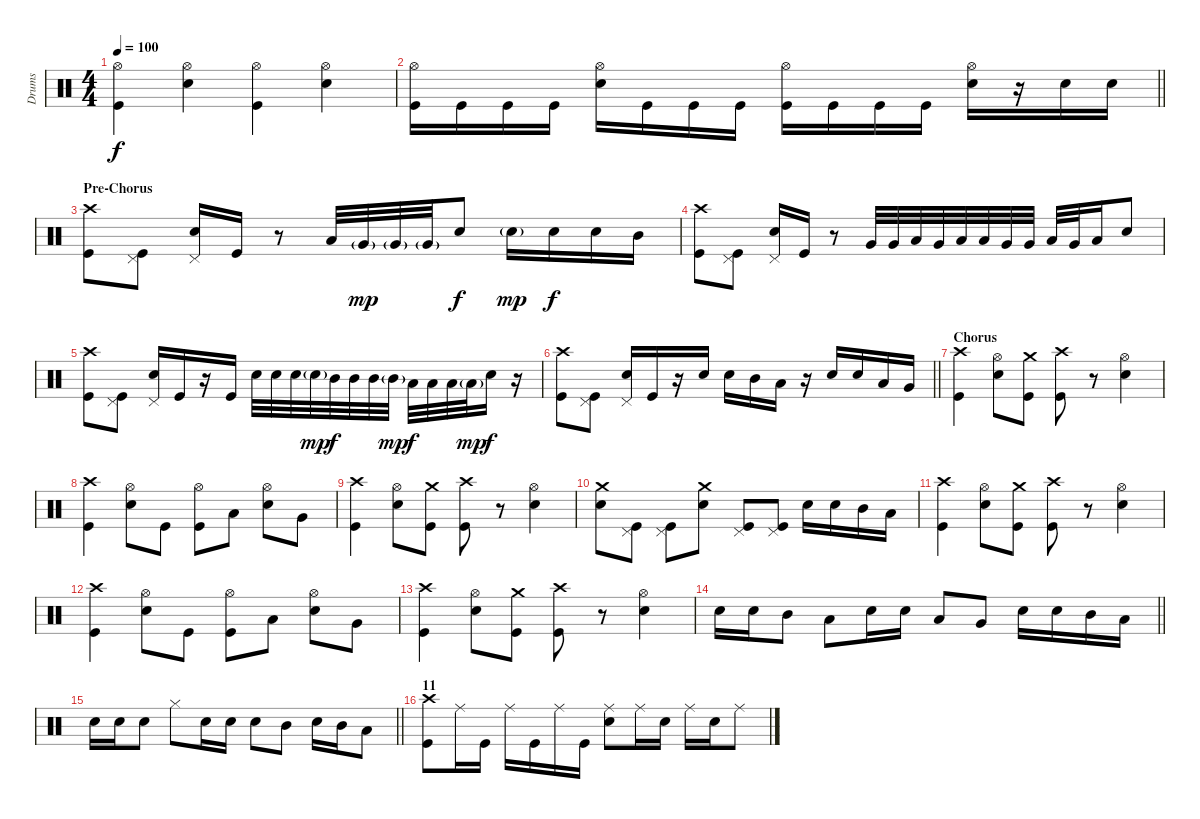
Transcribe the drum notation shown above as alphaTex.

\track ("Drums" "Drums") {instrument percussion}
\staff {score}
\articulation defaults
\ts (4 4)
\tempo 100
\clef neutral
\ks c
("Hi-Hat (open)" "Kick (hit)").4{dy f} ("Hi-Hat (open)" "Electric Snare (hit)").4 ("Hi-Hat (open)" "Kick (hit)").4 ("Hi-Hat (open)" "Electric Snare (hit)").4 |
\barLineRight lightlight
("Hi-Hat (open)" "Kick (hit)").16 "Kick (hit)".16 "Kick (hit)".16 "Kick (hit)".16 ("Hi-Hat (open)" "Electric Snare (hit)").16 "Kick (hit)".16 "Kick (hit)".16 "Kick (hit)".16 ("Hi-Hat (open)" "Kick (hit)").16 "Kick (hit)".16 "Kick (hit)".16 "Kick (hit)".16 ("Hi-Hat (open)" "Electric Snare (hit)").16 r.16 "Electric Snare (hit)".16 "Electric Snare (hit)".16 |
\section ("" "Pre-Chorus")
("Crash high (hit)" "Kick (hit)").8 ("Pedal Hi-Hat (hit)" "Kick (hit)").8 ("Pedal Hi-Hat (hit)" "Electric Snare (hit)").16 "Kick (hit)".16 r.8 "Low Tom (hit)".32 "Very Low Tom (hit)"{g}.32{dy mp} "Very Low Tom (hit)"{g}.32 "Very Low Tom (hit)"{g}.32 "Snare (hit) 2".8{dy f} "Electric Snare (hit)"{g}.16{dy mp} "Electric Snare (hit)".16{dy f} "Snare (hit) 2".16 "Mid Tom (hit)".16 |
("Crash high (hit)" "Kick (hit)").8 ("Pedal Hi-Hat (hit)" "Kick (hit)").8 ("Pedal Hi-Hat (hit)" "Electric Snare (hit)").16 "Kick (hit)".16 r.8 "Very Low Tom (hit)".32 "Very Low Tom (hit)".32 "Low Floor Tom (hit)".32 "Very Low Tom (hit)".32 "Low Floor Tom (hit)".32 "Low Floor Tom (hit)".32 "Very Low Tom (hit)".32 "Very Low Tom (hit)".32 "Low Floor Tom (hit)".32 "Very Low Tom (hit)".32 "Low Floor Tom (hit)".16 "Electric Snare (hit)".8 |
("Crash high (hit)" "Kick (hit)").8 ("Pedal Hi-Hat (hit)" "Kick (hit)").8 ("Pedal Hi-Hat (hit)" "Electric Snare (hit)").16 "Kick (hit)".16 r.16 "Kick (hit)".16 "Electric Snare (hit)".32 "Electric Snare (hit)".32 "Electric Snare (hit)".32 "Electric Snare (hit)"{g}.32{dy mp} "Mid Tom (hit)".32{dy f} "Mid Tom (hit)".32 "Mid Tom (hit)".32 "Mid Tom (hit)"{g}.32{dy mp} "Low Tom (hit)".32{dy f} "Low Tom (hit)".32 "Low Tom (hit)".32 "Low Tom (hit)"{g}.32{dy mp} "Electric Snare (hit)".16{dy f} r.16 |
\barLineRight lightlight
("Crash high (hit)" "Kick (hit)").8 ("Pedal Hi-Hat (hit)" "Kick (hit)").8 ("Pedal Hi-Hat (hit)" "Electric Snare (hit)").16 "Kick (hit)".16 r.16 "Electric Snare (hit)".16 "Electric Snare (hit)".16 "Mid Tom (hit)".16 "Low Tom (hit)".16 r.16 "Electric Snare (hit)".16 "Electric Snare (hit)".16 "Low Tom (hit)".16 "Very Low Tom (hit)".16 |
\section ("" "Chorus")
("Crash high (hit)" "Kick (hit)").4 ("Hi-Hat (open)" "Electric Snare (hit)").8 ("Crash medium (hit)" "Kick (hit)").8 ("Crash high (hit)" "Kick (hit)").8 r.8 ("Hi-Hat (open)" "Electric Snare (hit)").4 |
("Crash high (hit)" "Kick (hit)").4 ("Hi-Hat (open)" "Electric Snare (hit)").8 "Kick (hit)".8 ("Hi-Hat (open)" "Kick (hit)").8 "Low Tom (hit)".8 ("Hi-Hat (open)" "Electric Snare (hit)").8 "Very Low Tom (hit)".8 |
("Crash high (hit)" "Kick (hit)").4 ("Hi-Hat (open)" "Electric Snare (hit)").8 ("Crash medium (hit)" "Kick (hit)").8 ("Crash high (hit)" "Kick (hit)").8 r.8 ("Hi-Hat (open)" "Electric Snare (hit)").4 |
("Crash medium (hit)" "Electric Snare (hit)").8 ("Pedal Hi-Hat (hit)" "Kick (hit)").8 ("Pedal Hi-Hat (hit)" "Kick (hit)").8 ("Crash medium (hit)" "Electric Snare (hit)").8 ("Pedal Hi-Hat (hit)" "Kick (hit)").8 ("Pedal Hi-Hat (hit)" "Kick (hit)").8 "Electric Snare (hit)".16 "Electric Snare (hit)".16 "Mid Tom (hit)".16 "Low Tom (hit)".16 |
("Crash high (hit)" "Kick (hit)").4 ("Hi-Hat (open)" "Electric Snare (hit)").8 ("Crash medium (hit)" "Kick (hit)").8 ("Crash high (hit)" "Kick (hit)").8 r.8 ("Hi-Hat (open)" "Electric Snare (hit)").4 |
("Crash high (hit)" "Kick (hit)").4 ("Hi-Hat (open)" "Electric Snare (hit)").8 "Kick (hit)".8 ("Hi-Hat (open)" "Kick (hit)").8 "Low Tom (hit)".8 ("Hi-Hat (open)" "Electric Snare (hit)").8 "Very Low Tom (hit)".8 |
("Crash high (hit)" "Kick (hit)").4 ("Hi-Hat (open)" "Electric Snare (hit)").8 ("Crash medium (hit)" "Kick (hit)").8 ("Crash high (hit)" "Kick (hit)").8 r.8 ("Hi-Hat (open)" "Electric Snare (hit)").4 |
\barLineRight lightlight "Electric Snare (hit)".16 "Electric Snare (hit)".16 "Mid Tom (hit)".8 "Low Tom (hit)".8 "Electric Snare (hit)".16 "Electric Snare (hit)".16 "Low Tom (hit)".8 "Very Low Tom (hit)".8 "Electric Snare (hit)".16 "Electric Snare (hit)".16 "Mid Tom (hit)".16 "Low Tom (hit)".16
|
\section ("" "")
\barLineRight lightlight "Electric Snare (hit)".16 "Electric Snare (hit)".16 "Electric Snare (hit)".8 "Hi-Hat (closed)".8 "Electric Snare (hit)".16 "Electric Snare (hit)".16 "Electric Snare (hit)".8 "Mid Tom (hit)".8 "Electric Snare (hit)".16 "Mid Tom (hit)".16 "Low Tom (hit)".8
|
\section ("" "11")
("Crash high (hit)" "Kick (hit)").8 "Ride (middle)".16 "Kick (hit)".16 "Ride (middle)".16 "Kick (hit)".16 "Ride (middle)".16 "Kick (hit)".16 ("Ride (middle)" "Electric Snare (hit)").8 "Ride (middle)".16 "Electric Snare (hit)".16 "Ride (middle)".16 "Electric Snare (hit)".16 "Ride (middle)".8
